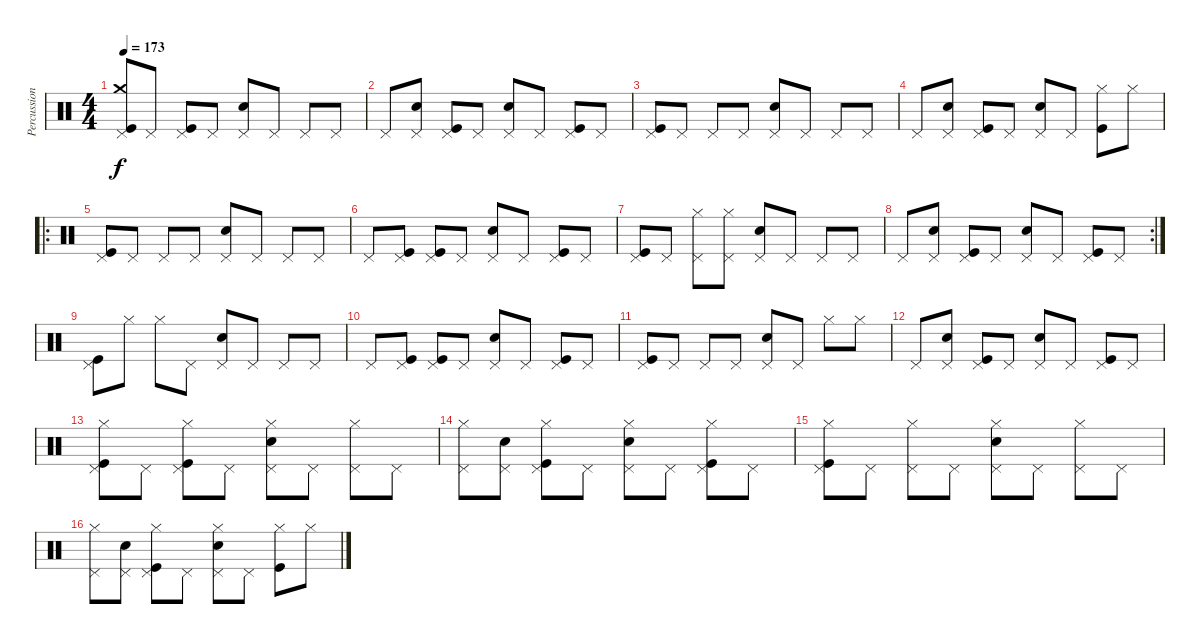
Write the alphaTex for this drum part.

\track ("Percussion" "Percussion") {instrument percussion}
\staff {score}
\articulation defaults
\ts (4 4)
\tempo 173
\clef neutral
\ks c
("Kick (hit)" "Crash medium (hit)" "Pedal Hi-Hat (hit)").8{dy f} "Pedal Hi-Hat (hit)".8 ("Kick (hit)" "Pedal Hi-Hat (hit)").8 "Pedal Hi-Hat (hit)".8 ("Snare (hit) 2" "Pedal Hi-Hat (hit)").8 "Pedal Hi-Hat (hit)".8 "Pedal Hi-Hat (hit)".8 "Pedal Hi-Hat (hit)".8 |
"Pedal Hi-Hat (hit)".8 ("Snare (hit) 2" "Pedal Hi-Hat (hit)").8 ("Kick (hit)" "Pedal Hi-Hat (hit)").8 "Pedal Hi-Hat (hit)".8 ("Snare (hit) 2" "Pedal Hi-Hat (hit)").8 "Pedal Hi-Hat (hit)".8 ("Kick (hit)" "Pedal Hi-Hat (hit)").8 "Pedal Hi-Hat (hit)".8 |
("Kick (hit)" "Pedal Hi-Hat (hit)").8 "Pedal Hi-Hat (hit)".8 "Pedal Hi-Hat (hit)".8 "Pedal Hi-Hat (hit)".8 ("Snare (hit) 2" "Pedal Hi-Hat (hit)").8 "Pedal Hi-Hat (hit)".8 "Pedal Hi-Hat (hit)".8 "Pedal Hi-Hat (hit)".8 |
"Pedal Hi-Hat (hit)".8 ("Snare (hit) 2" "Pedal Hi-Hat (hit)").8 ("Kick (hit)" "Pedal Hi-Hat (hit)").8 "Pedal Hi-Hat (hit)".8 ("Snare (hit) 2" "Pedal Hi-Hat (hit)").8 "Pedal Hi-Hat (hit)".8 ("Kick (hit)" "Hi-Hat (closed)").8 "Hi-Hat (closed)".8 |
\ro
("Kick (hit)" "Pedal Hi-Hat (hit)").8 "Pedal Hi-Hat (hit)".8 "Pedal Hi-Hat (hit)".8 "Pedal Hi-Hat (hit)".8 ("Snare (hit) 2" "Pedal Hi-Hat (hit)").8 "Pedal Hi-Hat (hit)".8 "Pedal Hi-Hat (hit)".8 "Pedal Hi-Hat (hit)".8 |
"Pedal Hi-Hat (hit)".8 ("Kick (hit)" "Pedal Hi-Hat (hit)").8 ("Kick (hit)" "Pedal Hi-Hat (hit)").8 "Pedal Hi-Hat (hit)".8 ("Snare (hit) 2" "Pedal Hi-Hat (hit)").8 "Pedal Hi-Hat (hit)".8 ("Kick (hit)" "Pedal Hi-Hat (hit)").8 "Pedal Hi-Hat (hit)".8 |
("Kick (hit)" "Pedal Hi-Hat (hit)").8 "Pedal Hi-Hat (hit)".8 ("Hi-Hat (closed)" "Pedal Hi-Hat (hit)").8 ("Hi-Hat (closed)" "Pedal Hi-Hat (hit)").8 ("Snare (hit) 2" "Pedal Hi-Hat (hit)").8 "Pedal Hi-Hat (hit)".8 "Pedal Hi-Hat (hit)".8 "Pedal Hi-Hat (hit)".8 |
\rc 2 "Pedal Hi-Hat (hit)".8
("Snare (hit) 2" "Pedal Hi-Hat (hit)").8 ("Kick (hit)" "Pedal Hi-Hat (hit)").8 "Pedal Hi-Hat (hit)".8 ("Snare (hit) 2" "Pedal Hi-Hat (hit)").8 "Pedal Hi-Hat (hit)".8 ("Kick (hit)" "Pedal Hi-Hat (hit)").8 "Pedal Hi-Hat (hit)".8 |
("Kick (hit)" "Pedal Hi-Hat (hit)").8 "Hi-Hat (closed)".8 "Hi-Hat (closed)".8 "Pedal Hi-Hat (hit)".8 ("Snare (hit) 2" "Pedal Hi-Hat (hit)").8 "Pedal Hi-Hat (hit)".8 "Pedal Hi-Hat (hit)".8 "Pedal Hi-Hat (hit)".8 |
"Pedal Hi-Hat (hit)".8 ("Kick (hit)" "Pedal Hi-Hat (hit)").8 ("Kick (hit)" "Pedal Hi-Hat (hit)").8 "Pedal Hi-Hat (hit)".8 ("Snare (hit) 2" "Pedal Hi-Hat (hit)").8 "Pedal Hi-Hat (hit)".8 ("Kick (hit)" "Pedal Hi-Hat (hit)").8 "Pedal Hi-Hat (hit)".8 |
("Kick (hit)" "Pedal Hi-Hat (hit)").8 "Pedal Hi-Hat (hit)".8 "Pedal Hi-Hat (hit)".8 "Pedal Hi-Hat (hit)".8 ("Snare (hit) 2" "Pedal Hi-Hat (hit)").8 "Pedal Hi-Hat (hit)".8 "Hi-Hat (closed)".8 "Hi-Hat (closed)".8 |
"Pedal Hi-Hat (hit)".8 ("Snare (hit) 2" "Pedal Hi-Hat (hit)").8 ("Kick (hit)" "Pedal Hi-Hat (hit)").8 "Pedal Hi-Hat (hit)".8 ("Snare (hit) 2" "Pedal Hi-Hat (hit)").8 "Pedal Hi-Hat (hit)".8 ("Kick (hit)" "Pedal Hi-Hat (hit)").8 "Pedal Hi-Hat (hit)".8 |
("Kick (hit)" "Hi-Hat (closed)" "Pedal Hi-Hat (hit)").8 "Pedal Hi-Hat (hit)".8 ("Kick (hit)" "Hi-Hat (closed)" "Pedal Hi-Hat (hit)").8 "Pedal Hi-Hat (hit)".8 ("Snare (hit) 2" "Hi-Hat (closed)" "Pedal Hi-Hat (hit)").8 "Pedal Hi-Hat (hit)".8 ("Hi-Hat (closed)" "Pedal Hi-Hat (hit)").8 "Pedal Hi-Hat (hit)".8 |
("Hi-Hat (closed)" "Pedal Hi-Hat (hit)").8 ("Snare (hit) 2" "Pedal Hi-Hat (hit)").8 ("Kick (hit)" "Hi-Hat (closed)" "Pedal Hi-Hat (hit)").8 "Pedal Hi-Hat (hit)".8 ("Snare (hit) 2" "Hi-Hat (closed)" "Pedal Hi-Hat (hit)").8 "Pedal Hi-Hat (hit)".8 ("Kick (hit)" "Hi-Hat (closed)" "Pedal Hi-Hat (hit)").8 "Pedal Hi-Hat (hit)".8 |
("Kick (hit)" "Hi-Hat (closed)" "Pedal Hi-Hat (hit)").8 "Pedal Hi-Hat (hit)".8 ("Hi-Hat (closed)" "Pedal Hi-Hat (hit)").8 "Pedal Hi-Hat (hit)".8 ("Snare (hit) 2" "Hi-Hat (closed)" "Pedal Hi-Hat (hit)").8 "Pedal Hi-Hat (hit)".8 ("Hi-Hat (closed)" "Pedal Hi-Hat (hit)").8 "Pedal Hi-Hat (hit)".8 |
("Hi-Hat (closed)" "Pedal Hi-Hat (hit)").8 ("Snare (hit) 2" "Pedal Hi-Hat (hit)").8 ("Kick (hit)" "Hi-Hat (closed)" "Pedal Hi-Hat (hit)").8 "Pedal Hi-Hat (hit)".8 ("Snare (hit) 2" "Hi-Hat (closed)" "Pedal Hi-Hat (hit)").8 "Pedal Hi-Hat (hit)".8 ("Kick (hit)" "Hi-Hat (closed)").8 "Hi-Hat (closed)".8
